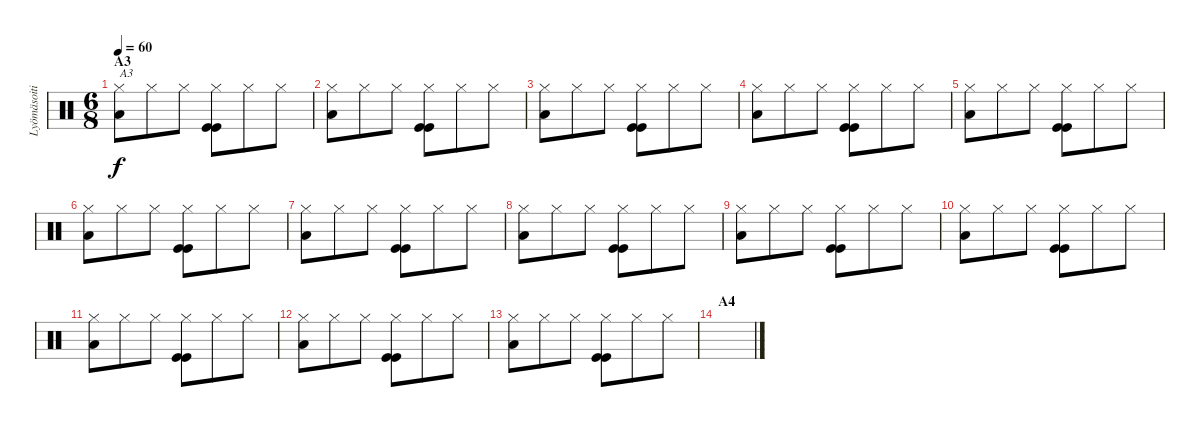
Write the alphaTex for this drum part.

\track ("Lyömäsoitin" "Lyömäsoiti") {instrument percussion}
\staff {score}
\articulation defaults
\ts (6 8)
\section ("" "A3")
\tempo 60
\clef neutral
\ks c
("Hi-Hat (closed)" "Low Floor Tom (hit)").8{txt "A3" dy f} "Hi-Hat (closed)".8 "Hi-Hat (closed)".8 ("Hi-Hat (closed)" "Kick (hit)" "Kick (hit)").8 "Hi-Hat (closed)".8 "Hi-Hat (closed)".8 |
("Hi-Hat (closed)" "Low Floor Tom (hit)").8 "Hi-Hat (closed)".8 "Hi-Hat (closed)".8 ("Hi-Hat (closed)" "Kick (hit)" "Kick (hit)").8 "Hi-Hat (closed)".8 "Hi-Hat (closed)".8 |
("Hi-Hat (closed)" "Low Floor Tom (hit)").8 "Hi-Hat (closed)".8 "Hi-Hat (closed)".8 ("Hi-Hat (closed)" "Kick (hit)" "Kick (hit)").8 "Hi-Hat (closed)".8 "Hi-Hat (closed)".8 |
("Hi-Hat (closed)" "Low Floor Tom (hit)").8 "Hi-Hat (closed)".8 "Hi-Hat (closed)".8 ("Hi-Hat (closed)" "Kick (hit)" "Kick (hit)").8 "Hi-Hat (closed)".8 "Hi-Hat (closed)".8 |
("Hi-Hat (closed)" "Low Floor Tom (hit)").8 "Hi-Hat (closed)".8 "Hi-Hat (closed)".8 ("Hi-Hat (closed)" "Kick (hit)" "Kick (hit)").8 "Hi-Hat (closed)".8 "Hi-Hat (closed)".8 |
("Hi-Hat (closed)" "Low Floor Tom (hit)").8 "Hi-Hat (closed)".8 "Hi-Hat (closed)".8 ("Hi-Hat (closed)" "Kick (hit)" "Kick (hit)").8 "Hi-Hat (closed)".8 "Hi-Hat (closed)".8 |
("Hi-Hat (closed)" "Low Floor Tom (hit)").8 "Hi-Hat (closed)".8 "Hi-Hat (closed)".8 ("Hi-Hat (closed)" "Kick (hit)" "Kick (hit)").8 "Hi-Hat (closed)".8 "Hi-Hat (closed)".8 |
("Hi-Hat (closed)" "Low Floor Tom (hit)").8 "Hi-Hat (closed)".8 "Hi-Hat (closed)".8 ("Hi-Hat (closed)" "Kick (hit)" "Kick (hit)").8 "Hi-Hat (closed)".8 "Hi-Hat (closed)".8 |
("Hi-Hat (closed)" "Low Floor Tom (hit)").8 "Hi-Hat (closed)".8 "Hi-Hat (closed)".8 ("Hi-Hat (closed)" "Kick (hit)" "Kick (hit)").8 "Hi-Hat (closed)".8 "Hi-Hat (closed)".8 |
("Hi-Hat (closed)" "Low Floor Tom (hit)").8 "Hi-Hat (closed)".8 "Hi-Hat (closed)".8 ("Hi-Hat (closed)" "Kick (hit)" "Kick (hit)").8 "Hi-Hat (closed)".8 "Hi-Hat (closed)".8 |
("Hi-Hat (closed)" "Low Floor Tom (hit)").8 "Hi-Hat (closed)".8 "Hi-Hat (closed)".8 ("Hi-Hat (closed)" "Kick (hit)" "Kick (hit)").8 "Hi-Hat (closed)".8 "Hi-Hat (closed)".8 |
("Hi-Hat (closed)" "Low Floor Tom (hit)").8 "Hi-Hat (closed)".8 "Hi-Hat (closed)".8 ("Hi-Hat (closed)" "Kick (hit)" "Kick (hit)").8 "Hi-Hat (closed)".8 "Hi-Hat (closed)".8 |
("Hi-Hat (closed)" "Low Floor Tom (hit)").8 "Hi-Hat (closed)".8 "Hi-Hat (closed)".8 ("Hi-Hat (closed)" "Kick (hit)" "Kick (hit)").8 "Hi-Hat (closed)".8 "Hi-Hat (closed)".8 |
\section ("" "A4")
